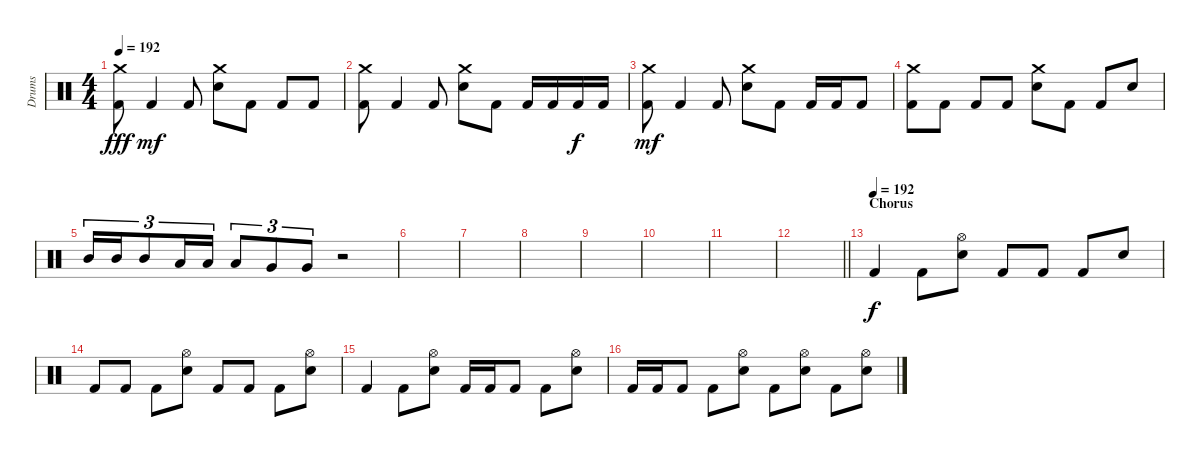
\track ("Drums" "Drums") {instrument percussion}
\staff {score}
\articulation defaults
\ts (4 4)
\tempo 192
\clef neutral
\ks c
("Kick (hit) 2" "Crash medium (hit)").8{dy fff} "Kick (hit) 2".4{dy mf} "Kick (hit) 2".8 ("Electric Snare (hit)" "Crash medium (hit)").8 "Kick (hit) 2".8 "Kick (hit) 2".8 "Kick (hit) 2".8 |
("Kick (hit) 2" "Crash medium (hit)").8 "Kick (hit) 2".4 "Kick (hit) 2".8 ("Electric Snare (hit)" "Crash medium (hit)").8 "Kick (hit) 2".8 "Kick (hit) 2".16 "Kick (hit) 2".16 "Kick (hit) 2".16{dy f} "Kick (hit) 2".16 |
("Kick (hit) 2" "Crash medium (hit)").8{dy mf} "Kick (hit) 2".4 "Kick (hit) 2".8 ("Electric Snare (hit)" "Crash medium (hit)").8 "Kick (hit) 2".8 "Kick (hit) 2".16 "Kick (hit) 2".16 "Kick (hit) 2".8 |
("Crash medium (hit)" "Kick (hit) 2").8 "Kick (hit) 2".8 "Kick (hit) 2".8 "Kick (hit) 2".8 ("Crash medium (hit)" "Electric Snare (hit)").8 "Kick (hit) 2".8 "Kick (hit) 2".8 "Electric Snare (hit)".8 |
"Mid Tom (hit)".16{tu (3 2)} "Mid Tom (hit)".16{tu (3 2)} "Mid Tom (hit)".8{tu (3 2)} "Low Tom (hit)".16{tu (3 2)} "Low Tom (hit)".16{tu (3 2)} "Low Tom (hit)".8{tu (3 2)} "Very Low Tom (hit)".8{tu (3 2)} "Very Low Tom (hit)".8{tu (3 2)} r.2 |
|
|
|
|
|
|
\barLineRight lightlight
|
\section ("" "Chorus")
\tempo (192)
"Kick (hit) 2".4{dy f} "Kick (hit) 2".8 ("Electric Snare (hit)" "Hi-Hat (open)").8 "Kick (hit) 2".8 "Kick (hit) 2".8 "Kick (hit) 2".8 "Electric Snare (hit)".8 |
"Kick (hit) 2".8 "Kick (hit) 2".8 "Kick (hit) 2".8 ("Electric Snare (hit)" "Hi-Hat (open)").8 "Kick (hit) 2".8 "Kick (hit) 2".8 "Kick (hit) 2".8 ("Electric Snare (hit)" "Hi-Hat (open)").8 |
"Kick (hit) 2".4 "Kick (hit) 2".8 ("Electric Snare (hit)" "Hi-Hat (open)").8 "Kick (hit) 2".16 "Kick (hit) 2".16 "Kick (hit) 2".8 "Kick (hit) 2".8 ("Electric Snare (hit)" "Hi-Hat (open)").8 |
"Kick (hit) 2".16 "Kick (hit) 2".16 "Kick (hit) 2".8 "Kick (hit) 2".8 ("Hi-Hat (open)" "Electric Snare (hit)").8 "Kick (hit) 2".8 ("Hi-Hat (open)" "Electric Snare (hit)").8 "Kick (hit) 2".8 ("Hi-Hat (open)" "Electric Snare (hit)").8
